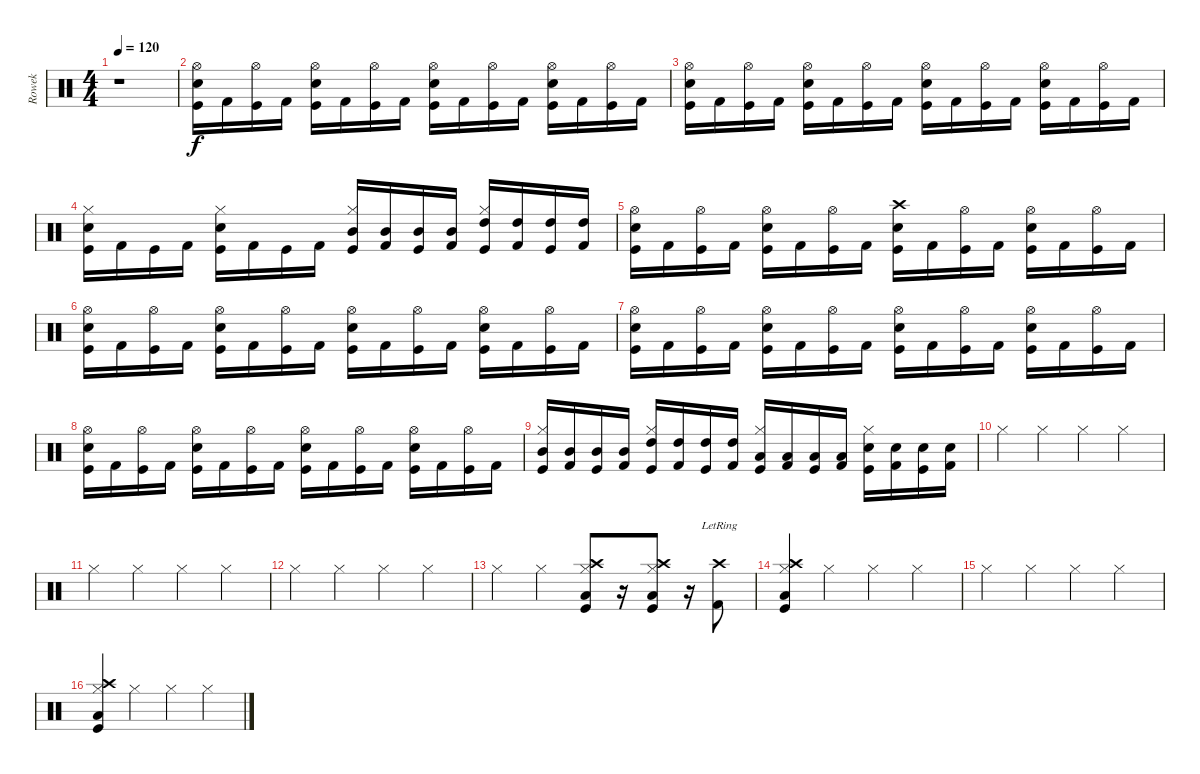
\track ("Rowek" "Rowek") {instrument percussion}
\staff {score}
\articulation defaults
\ts (4 4)
\tempo 120
\clef neutral
\ks c
r.1{dy f} |
("Hi-Hat (open)" "Snare (hit) 2" "Kick (hit)").16 "Kick (hit) 2".16 ("Hi-Hat (open)" "Kick (hit)").16 "Kick (hit) 2".16 ("Hi-Hat (open)" "Snare (hit) 2" "Kick (hit)").16 "Kick (hit) 2".16 ("Hi-Hat (open)" "Kick (hit)").16 "Kick (hit) 2".16 ("Hi-Hat (open)" "Snare (hit) 2" "Kick (hit)").16 "Kick (hit) 2".16 ("Hi-Hat (open)" "Kick (hit)").16 "Kick (hit) 2".16 ("Hi-Hat (open)" "Snare (hit) 2" "Kick (hit)").16 "Kick (hit) 2".16 ("Hi-Hat (open)" "Kick (hit)").16 "Kick (hit) 2".16 |
("Hi-Hat (open)" "Snare (hit) 2" "Kick (hit)").16 "Kick (hit) 2".16 ("Hi-Hat (open)" "Kick (hit)").16 "Kick (hit) 2".16 ("Hi-Hat (open)" "Snare (hit) 2" "Kick (hit)").16 "Kick (hit) 2".16 ("Hi-Hat (open)" "Kick (hit)").16 "Kick (hit) 2".16 ("Hi-Hat (open)" "Snare (hit) 2" "Kick (hit)").16 "Kick (hit) 2".16 ("Hi-Hat (open)" "Kick (hit)").16 "Kick (hit) 2".16 ("Hi-Hat (open)" "Snare (hit) 2" "Kick (hit)").16 "Kick (hit) 2".16 ("Hi-Hat (open)" "Kick (hit)").16 "Kick (hit) 2".16 |
("Hi-Hat (closed)" "Snare (hit) 2" "Kick (hit)").16 "Kick (hit) 2".16 "Kick (hit)".16 "Kick (hit) 2".16 ("Hi-Hat (closed)" "Snare (hit) 2" "Kick (hit)").16 "Kick (hit) 2".16 "Kick (hit)".16 "Kick (hit) 2".16 ("Hi-Hat (closed)" "Mid Tom (hit)" "Kick (hit)").16 ("Mid Tom (hit)" "Kick (hit) 2").16 ("Mid Tom (hit)" "Kick (hit)").16 ("Mid Tom (hit)" "Kick (hit) 2").16 ("Hi-Hat (closed)" "High Tom (hit)" "Kick (hit)").16 ("High Tom (hit)" "Kick (hit) 2").16 ("High Tom (hit)" "Kick (hit)").16 ("High Tom (hit)" "Kick (hit) 2").16 |
("Hi-Hat (open)" "Snare (hit) 2" "Kick (hit)").16 "Kick (hit) 2".16 ("Hi-Hat (open)" "Kick (hit)").16 "Kick (hit) 2".16 ("Hi-Hat (open)" "Snare (hit) 2" "Kick (hit)").16 "Kick (hit) 2".16 ("Hi-Hat (open)" "Kick (hit)").16 "Kick (hit) 2".16 ("Crash high (hit)" "Snare (hit) 2" "Kick (hit)").16 "Kick (hit) 2".16 ("Hi-Hat (open)" "Kick (hit)").16 "Kick (hit) 2".16 ("Hi-Hat (open)" "Snare (hit) 2" "Kick (hit)").16 "Kick (hit) 2".16 ("Hi-Hat (open)" "Kick (hit)").16 "Kick (hit) 2".16 |
("Hi-Hat (open)" "Snare (hit) 2" "Kick (hit)").16 "Kick (hit) 2".16 ("Hi-Hat (open)" "Kick (hit)").16 "Kick (hit) 2".16 ("Hi-Hat (open)" "Snare (hit) 2" "Kick (hit)").16 "Kick (hit) 2".16 ("Hi-Hat (open)" "Kick (hit)").16 "Kick (hit) 2".16 ("Hi-Hat (open)" "Snare (hit) 2" "Kick (hit)").16 "Kick (hit) 2".16 ("Hi-Hat (open)" "Kick (hit)").16 "Kick (hit) 2".16 ("Hi-Hat (open)" "Snare (hit) 2" "Kick (hit)").16 "Kick (hit) 2".16 ("Hi-Hat (open)" "Kick (hit)").16 "Kick (hit) 2".16 |
("Hi-Hat (open)" "Snare (hit) 2" "Kick (hit)").16 "Kick (hit) 2".16 ("Hi-Hat (open)" "Kick (hit)").16 "Kick (hit) 2".16 ("Hi-Hat (open)" "Snare (hit) 2" "Kick (hit)").16 "Kick (hit) 2".16 ("Hi-Hat (open)" "Kick (hit)").16 "Kick (hit) 2".16 ("Hi-Hat (open)" "Snare (hit) 2" "Kick (hit)").16 "Kick (hit) 2".16 ("Hi-Hat (open)" "Kick (hit)").16 "Kick (hit) 2".16 ("Hi-Hat (open)" "Snare (hit) 2" "Kick (hit)").16 "Kick (hit) 2".16 ("Hi-Hat (open)" "Kick (hit)").16 "Kick (hit) 2".16 |
("Hi-Hat (open)" "Snare (hit) 2" "Kick (hit)").16 "Kick (hit) 2".16 ("Hi-Hat (open)" "Kick (hit)").16 "Kick (hit) 2".16 ("Hi-Hat (open)" "Snare (hit) 2" "Kick (hit)").16 "Kick (hit) 2".16 ("Hi-Hat (open)" "Kick (hit)").16 "Kick (hit) 2".16 ("Hi-Hat (open)" "Snare (hit) 2" "Kick (hit)").16 "Kick (hit) 2".16 ("Hi-Hat (open)" "Kick (hit)").16 "Kick (hit) 2".16 ("Hi-Hat (open)" "Snare (hit) 2" "Kick (hit)").16 "Kick (hit) 2".16 ("Hi-Hat (open)" "Kick (hit)").16 "Kick (hit) 2".16 |
("Hi-Hat (closed)" "Mid Tom (hit)" "Kick (hit)").16 ("Mid Tom (hit)" "Kick (hit) 2").16 ("Mid Tom (hit)" "Kick (hit)").16 ("Mid Tom (hit)" "Kick (hit) 2").16 ("Hi-Hat (closed)" "High Tom (hit)" "Kick (hit)").16 ("High Tom (hit)" "Kick (hit) 2").16 ("High Tom (hit)" "Kick (hit)").16 ("High Tom (hit)" "Kick (hit) 2").16 ("Hi-Hat (closed)" "Low Tom (hit)" "Kick (hit)").16 ("Low Tom (hit)" "Kick (hit) 2").16 ("Low Tom (hit)" "Kick (hit)").16 ("Low Tom (hit)" "Kick (hit) 2").16 ("Hi-Hat (closed)" "Snare (hit) 2" "Kick (hit)").16 ("Snare (hit) 2" "Kick (hit) 2").16 ("Snare (hit) 2" "Kick (hit)").16 ("Snare (hit) 2" "Kick (hit) 2").16 |
"Hi-Hat (closed)".4 "Hi-Hat (closed)".4 "Hi-Hat (closed)".4 "Hi-Hat (closed)".4 |
"Hi-Hat (closed)".4 "Hi-Hat (closed)".4 "Hi-Hat (closed)".4 "Hi-Hat (closed)".4 |
"Hi-Hat (closed)".4 "Hi-Hat (closed)".4 "Hi-Hat (closed)".4 "Hi-Hat (closed)".4 |
"Hi-Hat (closed)".4 "Hi-Hat (closed)".4 ("Hi-Hat (closed)" "Crash high (hit)" "Low Tom (hit)" "Kick (hit)").8 r.16 ("Hi-Hat (closed)" "Crash high (hit)" "Low Tom (hit)" "Kick (hit)").8 r.16 ("Crash high (hit)"{lr} "Kick (hit) 2").8 |
("Hi-Hat (closed)" "Crash high (hit)" "Low Tom (hit)" "Kick (hit)").4 "Hi-Hat (closed)".4 "Hi-Hat (closed)".4 "Hi-Hat (closed)".4 |
"Hi-Hat (closed)".4 "Hi-Hat (closed)".4 "Hi-Hat (closed)".4 "Hi-Hat (closed)".4 |
("Hi-Hat (closed)" "Crash high (hit)" "Low Tom (hit)" "Kick (hit)").4 "Hi-Hat (closed)".4 "Hi-Hat (closed)".4 "Hi-Hat (closed)".4
